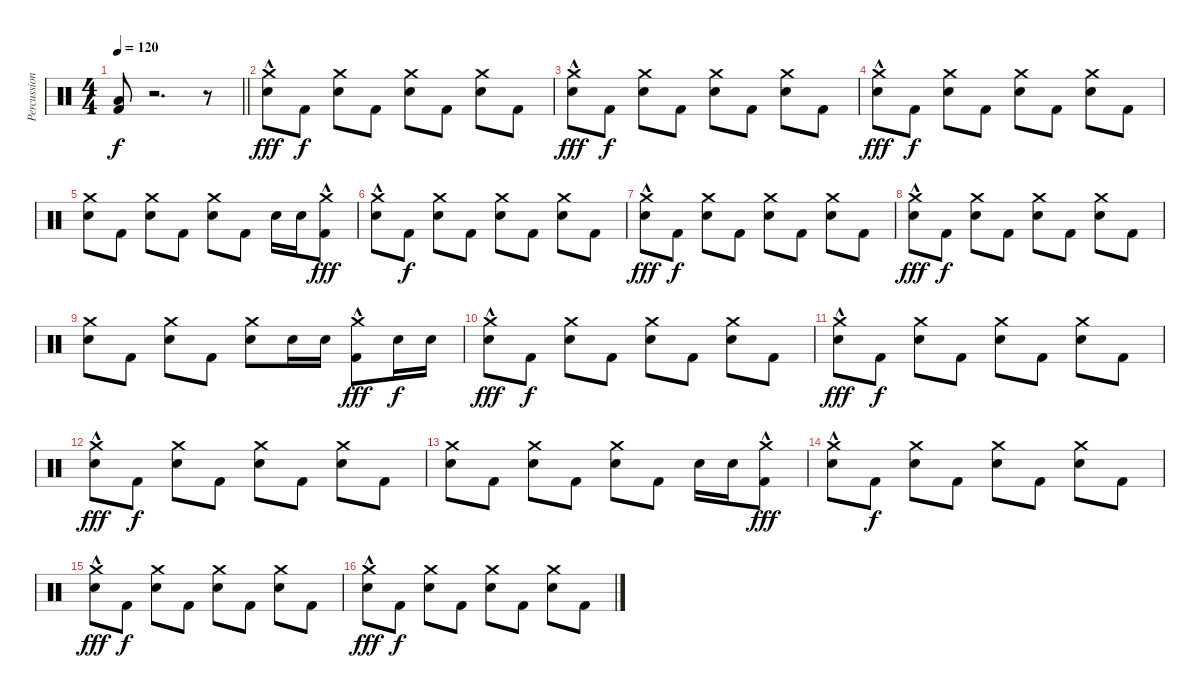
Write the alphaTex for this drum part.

\track ("Percussion" "Percussion") {instrument percussion}
\staff {score}
\articulation defaults
\ts (4 4)
\tempo 120
\clef neutral
\barLineRight lightlight
\ks c
("Low Floor Tom (hit)" "Kick (hit) 2").8{dy f} r.2{d} r.8 |
("Crash medium (hit)"{hac} "Snare (hit) 2").8{dy fff} "Kick (hit) 2".8{dy f} ("Crash medium (hit)" "Snare (hit) 2").8 "Kick (hit) 2".8 ("Crash medium (hit)" "Snare (hit) 2").8 "Kick (hit) 2".8 ("Crash medium (hit)" "Snare (hit) 2").8 "Kick (hit) 2".8 |
("Crash medium (hit)"{hac} "Snare (hit) 2").8{dy fff} "Kick (hit) 2".8{dy f} ("Crash medium (hit)" "Snare (hit) 2").8 "Kick (hit) 2".8 ("Crash medium (hit)" "Snare (hit) 2").8 "Kick (hit) 2".8 ("Crash medium (hit)" "Snare (hit) 2").8 "Kick (hit) 2".8 |
("Crash medium (hit)"{hac} "Snare (hit) 2").8{dy fff} "Kick (hit) 2".8{dy f} ("Crash medium (hit)" "Snare (hit) 2").8 "Kick (hit) 2".8 ("Crash medium (hit)" "Snare (hit) 2").8 "Kick (hit) 2".8 ("Crash medium (hit)" "Snare (hit) 2").8 "Kick (hit) 2".8 |
("Crash medium (hit)" "Snare (hit) 2").8 "Kick (hit) 2".8 ("Crash medium (hit)" "Snare (hit) 2").8 "Kick (hit) 2".8 ("Crash medium (hit)" "Snare (hit) 2").8 "Kick (hit) 2".8 "Snare (hit) 2".16 "Snare (hit) 2".16 ("Crash medium (hit)"{hac} "Kick (hit) 2").8{dy fff} |
("Crash medium (hit)"{hac} "Snare (hit) 2").8 "Kick (hit) 2".8{dy f} ("Crash medium (hit)" "Snare (hit) 2").8 "Kick (hit) 2".8 ("Crash medium (hit)" "Snare (hit) 2").8 "Kick (hit) 2".8 ("Crash medium (hit)" "Snare (hit) 2").8 "Kick (hit) 2".8 |
("Crash medium (hit)"{hac} "Snare (hit) 2").8{dy fff} "Kick (hit) 2".8{dy f} ("Crash medium (hit)" "Snare (hit) 2").8 "Kick (hit) 2".8 ("Crash medium (hit)" "Snare (hit) 2").8 "Kick (hit) 2".8 ("Crash medium (hit)" "Snare (hit) 2").8 "Kick (hit) 2".8 |
("Crash medium (hit)"{hac} "Snare (hit) 2").8{dy fff} "Kick (hit) 2".8{dy f} ("Crash medium (hit)" "Snare (hit) 2").8 "Kick (hit) 2".8 ("Crash medium (hit)" "Snare (hit) 2").8 "Kick (hit) 2".8 ("Crash medium (hit)" "Snare (hit) 2").8 "Kick (hit) 2".8 |
("Crash medium (hit)" "Snare (hit) 2").8 "Kick (hit) 2".8 ("Crash medium (hit)" "Snare (hit) 2").8 "Kick (hit) 2".8 ("Crash medium (hit)" "Snare (hit) 2").8 "Snare (hit) 2".16 "Snare (hit) 2".16 ("Crash medium (hit)"{hac} "Kick (hit) 2").8{dy fff} "Snare (hit) 2".16{dy f} "Snare (hit) 2".16 |
("Crash medium (hit)"{hac} "Snare (hit) 2").8{dy fff} "Kick (hit) 2".8{dy f} ("Crash medium (hit)" "Snare (hit) 2").8 "Kick (hit) 2".8 ("Crash medium (hit)" "Snare (hit) 2").8 "Kick (hit) 2".8 ("Crash medium (hit)" "Snare (hit) 2").8 "Kick (hit) 2".8 |
("Crash medium (hit)"{hac} "Snare (hit) 2").8{dy fff} "Kick (hit) 2".8{dy f} ("Crash medium (hit)" "Snare (hit) 2").8 "Kick (hit) 2".8 ("Crash medium (hit)" "Snare (hit) 2").8 "Kick (hit) 2".8 ("Crash medium (hit)" "Snare (hit) 2").8 "Kick (hit) 2".8 |
("Crash medium (hit)"{hac} "Snare (hit) 2").8{dy fff} "Kick (hit) 2".8{dy f} ("Crash medium (hit)" "Snare (hit) 2").8 "Kick (hit) 2".8 ("Crash medium (hit)" "Snare (hit) 2").8 "Kick (hit) 2".8 ("Crash medium (hit)" "Snare (hit) 2").8 "Kick (hit) 2".8 |
("Crash medium (hit)" "Snare (hit) 2").8 "Kick (hit) 2".8 ("Crash medium (hit)" "Snare (hit) 2").8 "Kick (hit) 2".8 ("Crash medium (hit)" "Snare (hit) 2").8 "Kick (hit) 2".8 "Snare (hit) 2".16 "Snare (hit) 2".16 ("Crash medium (hit)"{hac} "Kick (hit) 2").8{dy fff} |
("Crash medium (hit)"{hac} "Snare (hit) 2").8 "Kick (hit) 2".8{dy f} ("Crash medium (hit)" "Snare (hit) 2").8 "Kick (hit) 2".8 ("Crash medium (hit)" "Snare (hit) 2").8 "Kick (hit) 2".8 ("Crash medium (hit)" "Snare (hit) 2").8 "Kick (hit) 2".8 |
("Crash medium (hit)"{hac} "Snare (hit) 2").8{dy fff} "Kick (hit) 2".8{dy f} ("Crash medium (hit)" "Snare (hit) 2").8 "Kick (hit) 2".8 ("Crash medium (hit)" "Snare (hit) 2").8 "Kick (hit) 2".8 ("Crash medium (hit)" "Snare (hit) 2").8 "Kick (hit) 2".8 |
("Crash medium (hit)"{hac} "Snare (hit) 2").8{dy fff} "Kick (hit) 2".8{dy f} ("Crash medium (hit)" "Snare (hit) 2").8 "Kick (hit) 2".8 ("Crash medium (hit)" "Snare (hit) 2").8 "Kick (hit) 2".8 ("Crash medium (hit)" "Snare (hit) 2").8 "Kick (hit) 2".8
